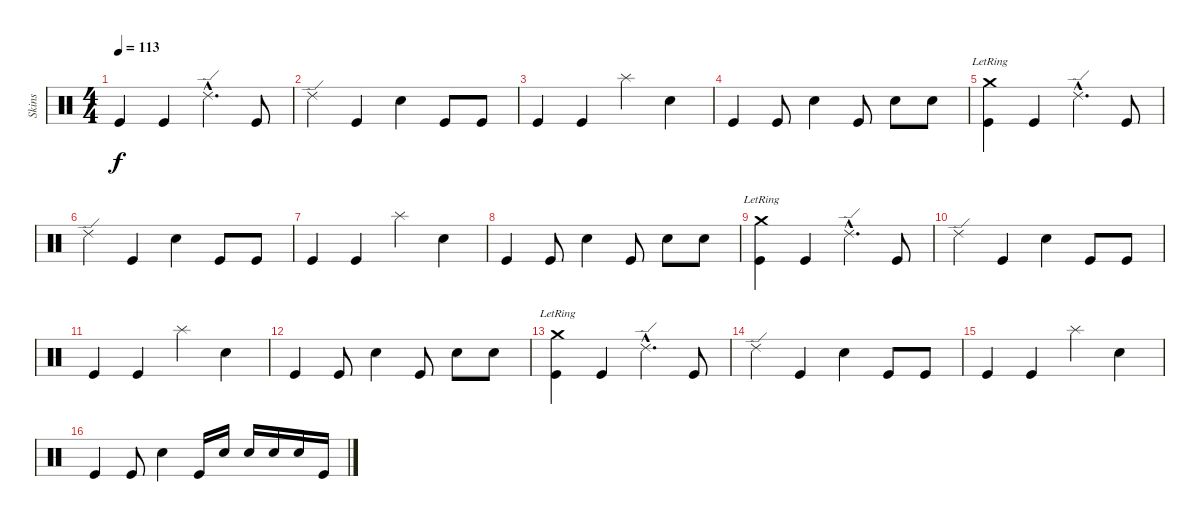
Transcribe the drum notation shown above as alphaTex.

\track ("Skins" "Skins") {instrument percussion}
\staff {score}
\articulation defaults
\ts (4 4)
\tempo 113
\clef neutral
\ks c "Kick (hit)".4{dy f} "Kick (hit)".4 "Ride (edge) 2"{hac}.4{d} "Kick (hit)".8
|
"Ride (edge) 2".4 "Kick (hit)".4 "Electric Snare (hit)".4 "Kick (hit)".8 "Kick (hit)".8 |
"Kick (hit)".4 "Kick (hit)".4 "Splash (hit)".4 "Electric Snare (hit)".4 |
"Kick (hit)".4 "Kick (hit)".8 "Electric Snare (hit)".4 "Kick (hit)".8 "Electric Snare (hit)".8 "Snare (hit) 2".8 |
("Crash medium (hit)"{lr} "Kick (hit)").4 "Kick (hit)".4 "Ride (edge) 2"{hac}.4{d} "Kick (hit)".8 |
"Ride (edge) 2".4 "Kick (hit)".4 "Electric Snare (hit)".4 "Kick (hit)".8 "Kick (hit)".8 |
"Kick (hit)".4 "Kick (hit)".4 "Splash (hit)".4 "Electric Snare (hit)".4 |
"Kick (hit)".4 "Kick (hit)".8 "Electric Snare (hit)".4 "Kick (hit)".8 "Electric Snare (hit)".8 "Snare (hit) 2".8 |
("Crash medium (hit)"{lr} "Kick (hit)").4 "Kick (hit)".4 "Ride (edge) 2"{hac}.4{d} "Kick (hit)".8 |
"Ride (edge) 2".4 "Kick (hit)".4 "Electric Snare (hit)".4 "Kick (hit)".8 "Kick (hit)".8 |
"Kick (hit)".4 "Kick (hit)".4 "Splash (hit)".4 "Electric Snare (hit)".4 |
"Kick (hit)".4 "Kick (hit)".8 "Electric Snare (hit)".4 "Kick (hit)".8 "Electric Snare (hit)".8 "Snare (hit) 2".8 |
("Crash medium (hit)"{lr} "Kick (hit)").4 "Kick (hit)".4 "Ride (edge) 2"{hac}.4{d} "Kick (hit)".8 |
"Ride (edge) 2".4 "Kick (hit)".4 "Electric Snare (hit)".4 "Kick (hit)".8 "Kick (hit)".8 |
"Kick (hit)".4 "Kick (hit)".4 "Splash (hit)".4 "Electric Snare (hit)".4 |
"Kick (hit)".4 "Kick (hit)".8 "Electric Snare (hit)".4 "Kick (hit)".16 "Electric Snare (hit)".16 "Snare (hit) 2".16 "Electric Snare (hit)".16 "Electric Snare (hit)".16 "Kick (hit)".16
